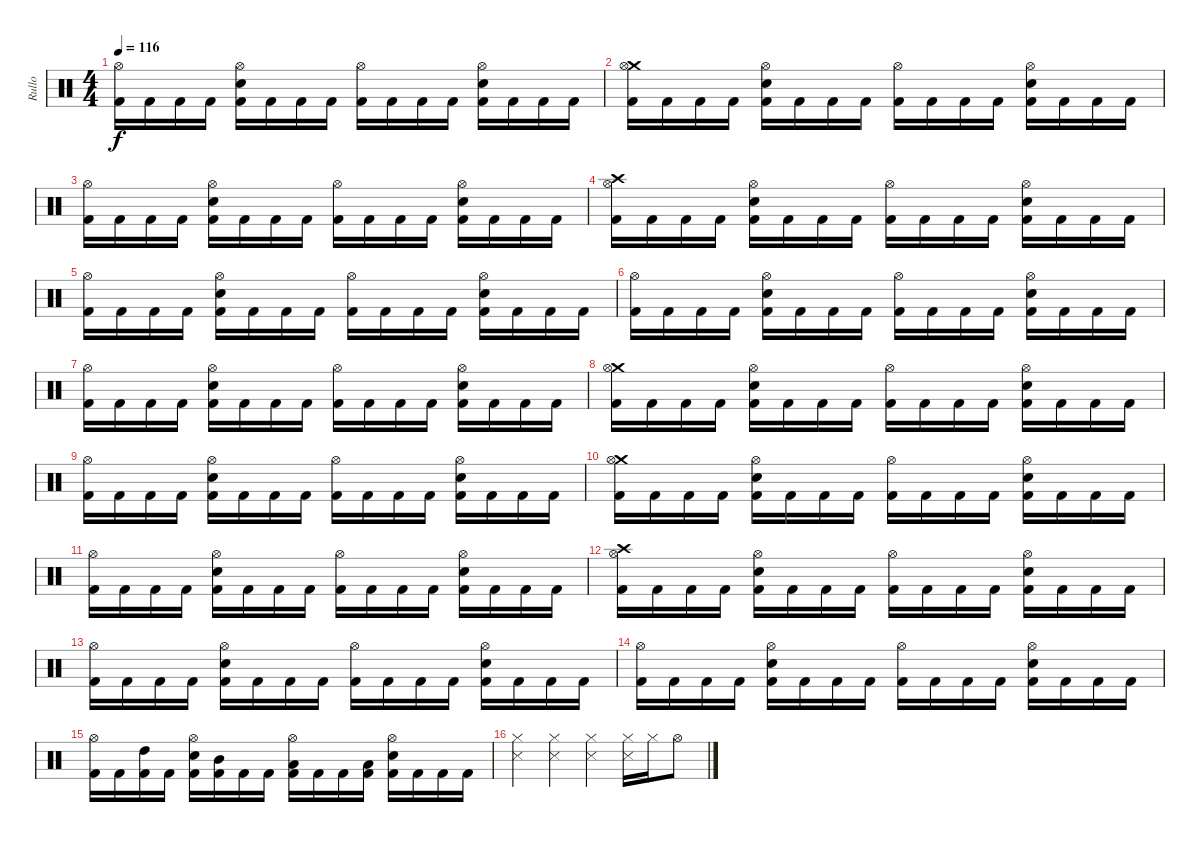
\track ("Rullo" "Rullo") {instrument percussion}
\staff {score}
\articulation defaults
\ts (4 4)
\tempo 116
\clef neutral
\ks c
("Hi-Hat (open)" "Kick (hit) 2").16{dy f} "Kick (hit) 2".16 "Kick (hit) 2".16 "Kick (hit) 2".16 ("Hi-Hat (open)" "Electric Snare (hit)" "Kick (hit) 2").16 "Kick (hit) 2".16 "Kick (hit) 2".16 "Kick (hit) 2".16 ("Hi-Hat (open)" "Kick (hit) 2").16 "Kick (hit) 2".16 "Kick (hit) 2".16 "Kick (hit) 2".16 ("Hi-Hat (open)" "Electric Snare (hit)" "Kick (hit) 2").16 "Kick (hit) 2".16 "Kick (hit) 2".16 "Kick (hit) 2".16 |
("Crash medium (hit)" "Hi-Hat (open)" "Kick (hit) 2").16 "Kick (hit) 2".16 "Kick (hit) 2".16 "Kick (hit) 2".16 ("Hi-Hat (open)" "Electric Snare (hit)" "Kick (hit) 2").16 "Kick (hit) 2".16 "Kick (hit) 2".16 "Kick (hit) 2".16 ("Hi-Hat (open)" "Kick (hit) 2").16 "Kick (hit) 2".16 "Kick (hit) 2".16 "Kick (hit) 2".16 ("Hi-Hat (open)" "Electric Snare (hit)" "Kick (hit) 2").16 "Kick (hit) 2".16 "Kick (hit) 2".16 "Kick (hit) 2".16 |
("Hi-Hat (open)" "Kick (hit) 2").16 "Kick (hit) 2".16 "Kick (hit) 2".16 "Kick (hit) 2".16 ("Hi-Hat (open)" "Electric Snare (hit)" "Kick (hit) 2").16 "Kick (hit) 2".16 "Kick (hit) 2".16 "Kick (hit) 2".16 ("Hi-Hat (open)" "Kick (hit) 2").16 "Kick (hit) 2".16 "Kick (hit) 2".16 "Kick (hit) 2".16 ("Hi-Hat (open)" "Electric Snare (hit)" "Kick (hit) 2").16 "Kick (hit) 2".16 "Kick (hit) 2".16 "Kick (hit) 2".16 |
("Crash high (hit)" "Hi-Hat (open)" "Kick (hit) 2").16 "Kick (hit) 2".16 "Kick (hit) 2".16 "Kick (hit) 2".16 ("Hi-Hat (open)" "Electric Snare (hit)" "Kick (hit) 2").16 "Kick (hit) 2".16 "Kick (hit) 2".16 "Kick (hit) 2".16 ("Hi-Hat (open)" "Kick (hit) 2").16 "Kick (hit) 2".16 "Kick (hit) 2".16 "Kick (hit) 2".16 ("Hi-Hat (open)" "Electric Snare (hit)" "Kick (hit) 2").16 "Kick (hit) 2".16 "Kick (hit) 2".16 "Kick (hit) 2".16 |
("Hi-Hat (open)" "Kick (hit) 2").16 "Kick (hit) 2".16 "Kick (hit) 2".16 "Kick (hit) 2".16 ("Hi-Hat (open)" "Electric Snare (hit)" "Kick (hit) 2").16 "Kick (hit) 2".16 "Kick (hit) 2".16 "Kick (hit) 2".16 ("Hi-Hat (open)" "Kick (hit) 2").16 "Kick (hit) 2".16 "Kick (hit) 2".16 "Kick (hit) 2".16 ("Hi-Hat (open)" "Electric Snare (hit)" "Kick (hit) 2").16 "Kick (hit) 2".16 "Kick (hit) 2".16 "Kick (hit) 2".16 |
("Hi-Hat (open)" "Kick (hit) 2").16 "Kick (hit) 2".16 "Kick (hit) 2".16 "Kick (hit) 2".16 ("Hi-Hat (open)" "Electric Snare (hit)" "Kick (hit) 2").16 "Kick (hit) 2".16 "Kick (hit) 2".16 "Kick (hit) 2".16 ("Hi-Hat (open)" "Kick (hit) 2").16 "Kick (hit) 2".16 "Kick (hit) 2".16 "Kick (hit) 2".16 ("Hi-Hat (open)" "Electric Snare (hit)" "Kick (hit) 2").16 "Kick (hit) 2".16 "Kick (hit) 2".16 "Kick (hit) 2".16 |
("Hi-Hat (open)" "Kick (hit) 2").16 "Kick (hit) 2".16 "Kick (hit) 2".16 "Kick (hit) 2".16 ("Hi-Hat (open)" "Electric Snare (hit)" "Kick (hit) 2").16 "Kick (hit) 2".16 "Kick (hit) 2".16 "Kick (hit) 2".16 ("Hi-Hat (open)" "Kick (hit) 2").16 "Kick (hit) 2".16 "Kick (hit) 2".16 "Kick (hit) 2".16 ("Hi-Hat (open)" "Electric Snare (hit)" "Kick (hit) 2").16 "Kick (hit) 2".16 "Kick (hit) 2".16 "Kick (hit) 2".16 |
("Crash medium (hit)" "Hi-Hat (open)" "Kick (hit) 2").16 "Kick (hit) 2".16 "Kick (hit) 2".16 "Kick (hit) 2".16 ("Hi-Hat (open)" "Electric Snare (hit)" "Kick (hit) 2").16 "Kick (hit) 2".16 "Kick (hit) 2".16 "Kick (hit) 2".16 ("Hi-Hat (open)" "Kick (hit) 2").16 "Kick (hit) 2".16 "Kick (hit) 2".16 "Kick (hit) 2".16 ("Hi-Hat (open)" "Electric Snare (hit)" "Kick (hit) 2").16 "Kick (hit) 2".16 "Kick (hit) 2".16 "Kick (hit) 2".16 |
("Hi-Hat (open)" "Kick (hit) 2").16 "Kick (hit) 2".16 "Kick (hit) 2".16 "Kick (hit) 2".16 ("Hi-Hat (open)" "Electric Snare (hit)" "Kick (hit) 2").16 "Kick (hit) 2".16 "Kick (hit) 2".16 "Kick (hit) 2".16 ("Hi-Hat (open)" "Kick (hit) 2").16 "Kick (hit) 2".16 "Kick (hit) 2".16 "Kick (hit) 2".16 ("Hi-Hat (open)" "Electric Snare (hit)" "Kick (hit) 2").16 "Kick (hit) 2".16 "Kick (hit) 2".16 "Kick (hit) 2".16 |
("Crash medium (hit)" "Hi-Hat (open)" "Kick (hit) 2").16 "Kick (hit) 2".16 "Kick (hit) 2".16 "Kick (hit) 2".16 ("Hi-Hat (open)" "Electric Snare (hit)" "Kick (hit) 2").16 "Kick (hit) 2".16 "Kick (hit) 2".16 "Kick (hit) 2".16 ("Hi-Hat (open)" "Kick (hit) 2").16 "Kick (hit) 2".16 "Kick (hit) 2".16 "Kick (hit) 2".16 ("Hi-Hat (open)" "Electric Snare (hit)" "Kick (hit) 2").16 "Kick (hit) 2".16 "Kick (hit) 2".16 "Kick (hit) 2".16 |
("Hi-Hat (open)" "Kick (hit) 2").16 "Kick (hit) 2".16 "Kick (hit) 2".16 "Kick (hit) 2".16 ("Hi-Hat (open)" "Electric Snare (hit)" "Kick (hit) 2").16 "Kick (hit) 2".16 "Kick (hit) 2".16 "Kick (hit) 2".16 ("Hi-Hat (open)" "Kick (hit) 2").16 "Kick (hit) 2".16 "Kick (hit) 2".16 "Kick (hit) 2".16 ("Hi-Hat (open)" "Electric Snare (hit)" "Kick (hit) 2").16 "Kick (hit) 2".16 "Kick (hit) 2".16 "Kick (hit) 2".16 |
("Crash high (hit)" "Hi-Hat (open)" "Kick (hit) 2").16 "Kick (hit) 2".16 "Kick (hit) 2".16 "Kick (hit) 2".16 ("Hi-Hat (open)" "Electric Snare (hit)" "Kick (hit) 2").16 "Kick (hit) 2".16 "Kick (hit) 2".16 "Kick (hit) 2".16 ("Hi-Hat (open)" "Kick (hit) 2").16 "Kick (hit) 2".16 "Kick (hit) 2".16 "Kick (hit) 2".16 ("Hi-Hat (open)" "Electric Snare (hit)" "Kick (hit) 2").16 "Kick (hit) 2".16 "Kick (hit) 2".16 "Kick (hit) 2".16 |
("Hi-Hat (open)" "Kick (hit) 2").16 "Kick (hit) 2".16 "Kick (hit) 2".16 "Kick (hit) 2".16 ("Hi-Hat (open)" "Electric Snare (hit)" "Kick (hit) 2").16 "Kick (hit) 2".16 "Kick (hit) 2".16 "Kick (hit) 2".16 ("Hi-Hat (open)" "Kick (hit) 2").16 "Kick (hit) 2".16 "Kick (hit) 2".16 "Kick (hit) 2".16 ("Hi-Hat (open)" "Electric Snare (hit)" "Kick (hit) 2").16 "Kick (hit) 2".16 "Kick (hit) 2".16 "Kick (hit) 2".16 |
("Hi-Hat (open)" "Kick (hit) 2").16 "Kick (hit) 2".16 "Kick (hit) 2".16 "Kick (hit) 2".16 ("Hi-Hat (open)" "Electric Snare (hit)" "Kick (hit) 2").16 "Kick (hit) 2".16 "Kick (hit) 2".16 "Kick (hit) 2".16 ("Hi-Hat (open)" "Kick (hit) 2").16 "Kick (hit) 2".16 "Kick (hit) 2".16 "Kick (hit) 2".16 ("Hi-Hat (open)" "Electric Snare (hit)" "Kick (hit) 2").16 "Kick (hit) 2".16 "Kick (hit) 2".16 "Kick (hit) 2".16 |
("Hi-Hat (open)" "Kick (hit) 2").16 "Kick (hit) 2".16 ("High Tom (hit)" "Kick (hit) 2").16 "Kick (hit) 2".16 ("Hi-Hat (open)" "Electric Snare (hit)" "Kick (hit) 2").16 ("Mid Tom (hit)" "Kick (hit) 2").16 "Kick (hit) 2".16 "Kick (hit) 2".16 ("Low Tom (hit)" "Hi-Hat (open)" "Kick (hit) 2").16 "Kick (hit) 2".16 "Kick (hit) 2".16 ("Low Tom (hit)" "Kick (hit) 2").16 ("Hi-Hat (open)" "Electric Snare (hit)" "Kick (hit) 2").16 "Kick (hit) 2".16 "Kick (hit) 2".16 "Kick (hit) 2".16 |
("Hi-Hat (closed)" "Snare (side stick) 3").4 ("Hi-Hat (closed)" "Snare (side stick) 3").4 ("Hi-Hat (closed)" "Snare (side stick) 3").4 ("Hi-Hat (closed)" "Snare (side stick) 3").16 "Hi-Hat (closed)".16 "Hi-Hat (open)".8
